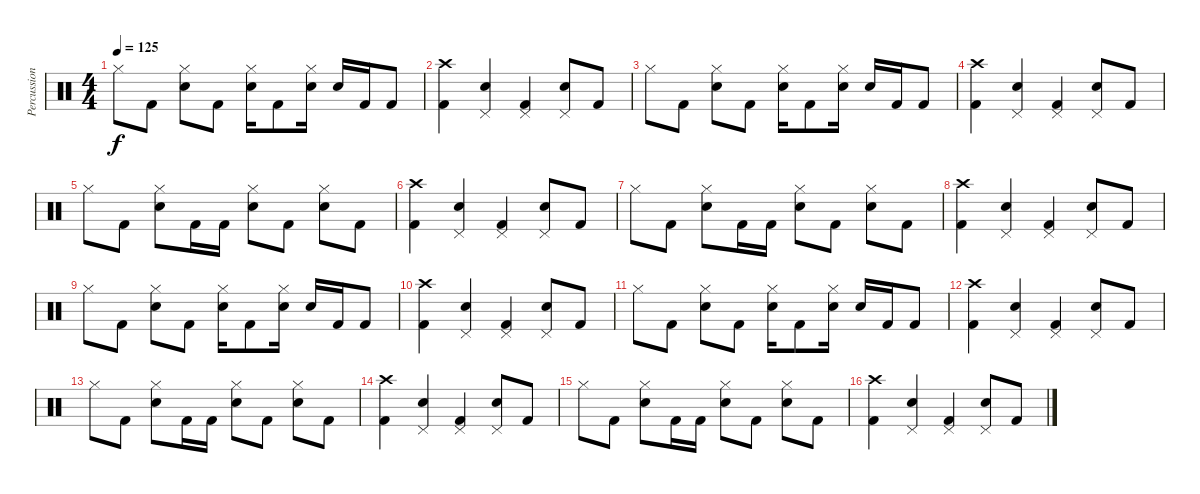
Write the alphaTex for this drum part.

\track ("Percussioni" "Percussion") {instrument percussion}
\staff {score}
\articulation defaults
\ts (4 4)
\tempo 125
\clef neutral
\ks c "Hi-Hat (closed)".8{dy f} "Kick (hit) 2".8
("Hi-Hat (closed)" "Snare (hit) 2").8 "Kick (hit) 2".8 ("Hi-Hat (closed)" "Snare (hit) 2").16 "Kick (hit) 2".8 ("Hi-Hat (closed)" "Snare (hit) 2").16 "Snare (hit) 2".16 "Kick (hit) 2".16 "Kick (hit) 2".8 |
("Crash high (hit)" "Kick (hit) 2").4 ("Pedal Hi-Hat (hit)" "Snare (hit) 2").4 ("Pedal Hi-Hat (hit)" "Kick (hit) 2").4 ("Pedal Hi-Hat (hit)" "Snare (hit) 2").8 "Kick (hit) 2".8 |
"Hi-Hat (closed)".8 "Kick (hit) 2".8 ("Hi-Hat (closed)" "Snare (hit) 2").8 "Kick (hit) 2".8 ("Hi-Hat (closed)" "Snare (hit) 2").16 "Kick (hit) 2".8 ("Hi-Hat (closed)" "Snare (hit) 2").16 "Snare (hit) 2".16 "Kick (hit) 2".16 "Kick (hit) 2".8 |
("Crash high (hit)" "Kick (hit) 2").4 ("Pedal Hi-Hat (hit)" "Snare (hit) 2").4 ("Pedal Hi-Hat (hit)" "Kick (hit) 2").4 ("Pedal Hi-Hat (hit)" "Snare (hit) 2").8 "Kick (hit) 2".8 |
"Hi-Hat (closed)".8 "Kick (hit) 2".8 ("Hi-Hat (closed)" "Snare (hit) 2").8 "Kick (hit) 2".16 "Kick (hit) 2".16 ("Hi-Hat (closed)" "Snare (hit) 2").8 "Kick (hit) 2".8 ("Hi-Hat (closed)" "Snare (hit) 2").8 "Kick (hit) 2".8 |
("Crash high (hit)" "Kick (hit) 2").4 ("Pedal Hi-Hat (hit)" "Snare (hit) 2").4 ("Pedal Hi-Hat (hit)" "Kick (hit) 2").4 ("Pedal Hi-Hat (hit)" "Snare (hit) 2").8 "Kick (hit) 2".8 |
"Hi-Hat (closed)".8 "Kick (hit) 2".8 ("Hi-Hat (closed)" "Snare (hit) 2").8 "Kick (hit) 2".16 "Kick (hit) 2".16 ("Hi-Hat (closed)" "Snare (hit) 2").8 "Kick (hit) 2".8 ("Hi-Hat (closed)" "Snare (hit) 2").8 "Kick (hit) 2".8 |
("Crash high (hit)" "Kick (hit) 2").4 ("Pedal Hi-Hat (hit)" "Snare (hit) 2").4 ("Pedal Hi-Hat (hit)" "Kick (hit) 2").4 ("Pedal Hi-Hat (hit)" "Snare (hit) 2").8 "Kick (hit) 2".8 |
"Hi-Hat (closed)".8 "Kick (hit) 2".8 ("Hi-Hat (closed)" "Snare (hit) 2").8 "Kick (hit) 2".8 ("Hi-Hat (closed)" "Snare (hit) 2").16 "Kick (hit) 2".8 ("Hi-Hat (closed)" "Snare (hit) 2").16 "Snare (hit) 2".16 "Kick (hit) 2".16 "Kick (hit) 2".8 |
("Crash high (hit)" "Kick (hit) 2").4 ("Pedal Hi-Hat (hit)" "Snare (hit) 2").4 ("Pedal Hi-Hat (hit)" "Kick (hit) 2").4 ("Pedal Hi-Hat (hit)" "Snare (hit) 2").8 "Kick (hit) 2".8 |
"Hi-Hat (closed)".8 "Kick (hit) 2".8 ("Hi-Hat (closed)" "Snare (hit) 2").8 "Kick (hit) 2".8 ("Hi-Hat (closed)" "Snare (hit) 2").16 "Kick (hit) 2".8 ("Hi-Hat (closed)" "Snare (hit) 2").16 "Snare (hit) 2".16 "Kick (hit) 2".16 "Kick (hit) 2".8 |
("Crash high (hit)" "Kick (hit) 2").4 ("Pedal Hi-Hat (hit)" "Snare (hit) 2").4 ("Pedal Hi-Hat (hit)" "Kick (hit) 2").4 ("Pedal Hi-Hat (hit)" "Snare (hit) 2").8 "Kick (hit) 2".8 |
"Hi-Hat (closed)".8 "Kick (hit) 2".8 ("Hi-Hat (closed)" "Snare (hit) 2").8 "Kick (hit) 2".16 "Kick (hit) 2".16 ("Hi-Hat (closed)" "Snare (hit) 2").8 "Kick (hit) 2".8 ("Hi-Hat (closed)" "Snare (hit) 2").8 "Kick (hit) 2".8 |
("Crash high (hit)" "Kick (hit) 2").4 ("Pedal Hi-Hat (hit)" "Snare (hit) 2").4 ("Pedal Hi-Hat (hit)" "Kick (hit) 2").4 ("Pedal Hi-Hat (hit)" "Snare (hit) 2").8 "Kick (hit) 2".8 |
"Hi-Hat (closed)".8 "Kick (hit) 2".8 ("Hi-Hat (closed)" "Snare (hit) 2").8 "Kick (hit) 2".16 "Kick (hit) 2".16 ("Hi-Hat (closed)" "Snare (hit) 2").8 "Kick (hit) 2".8 ("Hi-Hat (closed)" "Snare (hit) 2").8 "Kick (hit) 2".8 |
("Crash high (hit)" "Kick (hit) 2").4 ("Pedal Hi-Hat (hit)" "Snare (hit) 2").4 ("Pedal Hi-Hat (hit)" "Kick (hit) 2").4 ("Pedal Hi-Hat (hit)" "Snare (hit) 2").8 "Kick (hit) 2".8
